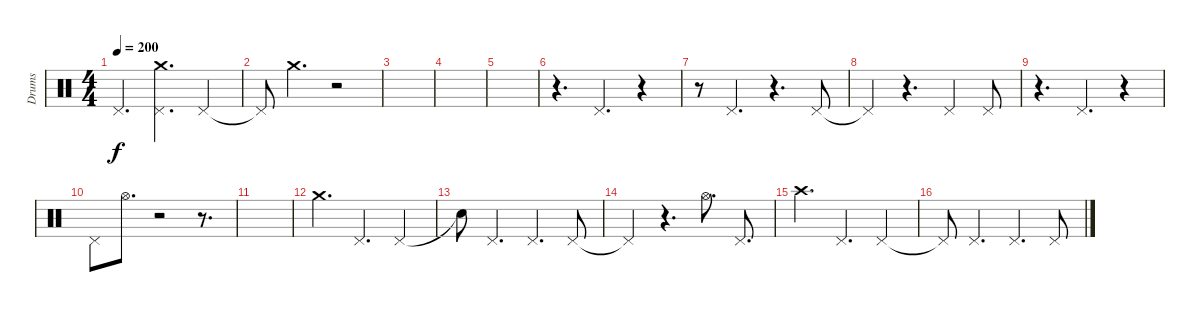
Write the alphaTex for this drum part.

\track ("Drums" "Drums") {instrument percussion}
\staff {score}
\articulation defaults
\ts (4 4)
\tempo 200
\clef neutral
\ks c "Pedal Hi-Hat (hit)".4{d dy f}
("Pedal Hi-Hat (hit)" "Crash medium (hit)").4{d} "Pedal Hi-Hat (hit)".4 |
"Pedal Hi-Hat (hit)"{t}.8 "Crash medium (hit)".4{d} r.2 |
|
|
|
r.4{d} "Pedal Hi-Hat (hit)".4{d} r.4 |
r.8 "Pedal Hi-Hat (hit)".4{d} r.4{d} "Pedal Hi-Hat (hit)".8 |
"Pedal Hi-Hat (hit)"{t}.4 r.4{d} "Pedal Hi-Hat (hit)".4 "Pedal Hi-Hat (hit)".8 |
r.4{d} "Pedal Hi-Hat (hit)".4{d} r.4 |
"Pedal Hi-Hat (hit)".8 "Hi-Hat (open)".8{d} r.2 r.8{d} |
|
"Crash medium (hit)".4{d} "Pedal Hi-Hat (hit)".4{d} "Pedal Hi-Hat (hit)".4 |
"Snare (hit)"{t}.8 "Pedal Hi-Hat (hit)".4{d} "Pedal Hi-Hat (hit)".4{d} "Pedal Hi-Hat (hit)".8 |
"Pedal Hi-Hat (hit)"{t}.4 r.4{d} "Hi-Hat (open)".8{d} "Pedal Hi-Hat (hit)".8{d} |
"Crash high (hit)".4{d} "Pedal Hi-Hat (hit)".4{d} "Pedal Hi-Hat (hit)".4 |
"Pedal Hi-Hat (hit)"{t}.8 "Pedal Hi-Hat (hit)".4{d} "Pedal Hi-Hat (hit)".4{d} "Pedal Hi-Hat (hit)".8
